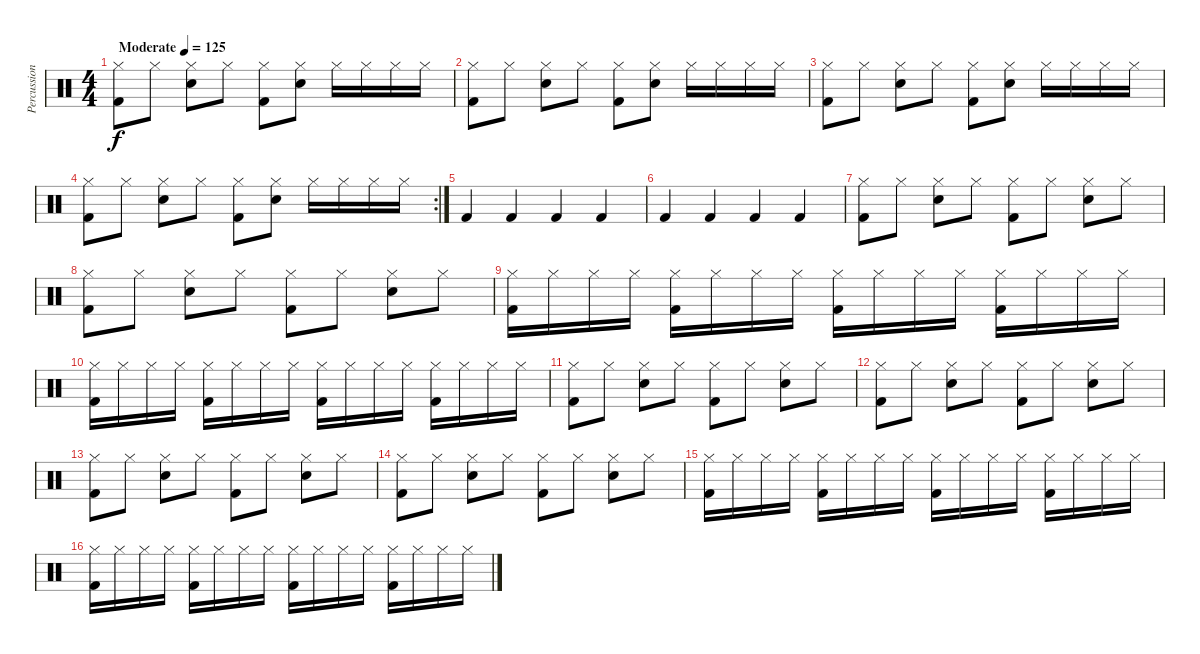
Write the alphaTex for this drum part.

\track ("Percussion" "Percussion") {instrument percussion}
\staff {score}
\articulation defaults
\ts (4 4)
\tempo (125 "Moderate")
\clef neutral
\ks c
("Kick (hit) 2" "Hi-Hat (closed)").8{dy f} "Hi-Hat (closed)".8 ("Snare (hit) 2" "Hi-Hat (closed)").8 "Hi-Hat (closed)".8 ("Kick (hit) 2" "Hi-Hat (closed)").8 ("Snare (hit) 2" "Hi-Hat (closed)").8 "Hi-Hat (closed)".16 "Hi-Hat (closed)".16 "Hi-Hat (closed)".16 "Hi-Hat (closed)".16 |
("Kick (hit) 2" "Hi-Hat (closed)").8 "Hi-Hat (closed)".8 ("Snare (hit) 2" "Hi-Hat (closed)").8 "Hi-Hat (closed)".8 ("Kick (hit) 2" "Hi-Hat (closed)").8 ("Snare (hit) 2" "Hi-Hat (closed)").8 "Hi-Hat (closed)".16 "Hi-Hat (closed)".16 "Hi-Hat (closed)".16 "Hi-Hat (closed)".16 |
("Kick (hit) 2" "Hi-Hat (closed)").8 "Hi-Hat (closed)".8 ("Snare (hit) 2" "Hi-Hat (closed)").8 "Hi-Hat (closed)".8 ("Kick (hit) 2" "Hi-Hat (closed)").8 ("Snare (hit) 2" "Hi-Hat (closed)").8 "Hi-Hat (closed)".16 "Hi-Hat (closed)".16 "Hi-Hat (closed)".16 "Hi-Hat (closed)".16 |
\rc 2
("Kick (hit) 2" "Hi-Hat (closed)").8 "Hi-Hat (closed)".8 ("Snare (hit) 2" "Hi-Hat (closed)").8 "Hi-Hat (closed)".8 ("Kick (hit) 2" "Hi-Hat (closed)").8 ("Snare (hit) 2" "Hi-Hat (closed)").8 "Hi-Hat (closed)".16 "Hi-Hat (closed)".16 "Hi-Hat (closed)".16 "Hi-Hat (closed)".16 |
"Kick (hit) 2".4 "Kick (hit) 2".4 "Kick (hit) 2".4 "Kick (hit) 2".4 |
"Kick (hit) 2".4 "Kick (hit) 2".4 "Kick (hit) 2".4 "Kick (hit) 2".4 |
("Kick (hit) 2" "Hi-Hat (closed)").8 "Hi-Hat (closed)".8 ("Snare (hit) 2" "Hi-Hat (closed)").8 "Hi-Hat (closed)".8 ("Kick (hit) 2" "Hi-Hat (closed)").8 "Hi-Hat (closed)".8 ("Snare (hit) 2" "Hi-Hat (closed)").8 "Hi-Hat (closed)".8 |
("Kick (hit) 2" "Hi-Hat (closed)").8 "Hi-Hat (closed)".8 ("Snare (hit) 2" "Hi-Hat (closed)").8 "Hi-Hat (closed)".8 ("Kick (hit) 2" "Hi-Hat (closed)").8 "Hi-Hat (closed)".8 ("Snare (hit) 2" "Hi-Hat (closed)").8 "Hi-Hat (closed)".8 |
("Kick (hit) 2" "Hi-Hat (closed)").16 "Hi-Hat (closed)".16 "Hi-Hat (closed)".16 "Hi-Hat (closed)".16 ("Kick (hit) 2" "Hi-Hat (closed)").16 "Hi-Hat (closed)".16 "Hi-Hat (closed)".16 "Hi-Hat (closed)".16 ("Kick (hit) 2" "Hi-Hat (closed)").16 "Hi-Hat (closed)".16 "Hi-Hat (closed)".16 "Hi-Hat (closed)".16 ("Kick (hit) 2" "Hi-Hat (closed)").16 "Hi-Hat (closed)".16 "Hi-Hat (closed)".16 "Hi-Hat (closed)".16 |
("Kick (hit) 2" "Hi-Hat (closed)").16 "Hi-Hat (closed)".16 "Hi-Hat (closed)".16 "Hi-Hat (closed)".16 ("Kick (hit) 2" "Hi-Hat (closed)").16 "Hi-Hat (closed)".16 "Hi-Hat (closed)".16 "Hi-Hat (closed)".16 ("Kick (hit) 2" "Hi-Hat (closed)").16 "Hi-Hat (closed)".16 "Hi-Hat (closed)".16 "Hi-Hat (closed)".16 ("Kick (hit) 2" "Hi-Hat (closed)").16 "Hi-Hat (closed)".16 "Hi-Hat (closed)".16 "Hi-Hat (closed)".16 |
("Kick (hit) 2" "Hi-Hat (closed)").8 "Hi-Hat (closed)".8 ("Snare (hit) 2" "Hi-Hat (closed)").8 "Hi-Hat (closed)".8 ("Kick (hit) 2" "Hi-Hat (closed)").8 "Hi-Hat (closed)".8 ("Snare (hit) 2" "Hi-Hat (closed)").8 "Hi-Hat (closed)".8 |
("Kick (hit) 2" "Hi-Hat (closed)").8 "Hi-Hat (closed)".8 ("Snare (hit) 2" "Hi-Hat (closed)").8 "Hi-Hat (closed)".8 ("Kick (hit) 2" "Hi-Hat (closed)").8 "Hi-Hat (closed)".8 ("Snare (hit) 2" "Hi-Hat (closed)").8 "Hi-Hat (closed)".8 |
("Kick (hit) 2" "Hi-Hat (closed)").8 "Hi-Hat (closed)".8 ("Snare (hit) 2" "Hi-Hat (closed)").8 "Hi-Hat (closed)".8 ("Kick (hit) 2" "Hi-Hat (closed)").8 "Hi-Hat (closed)".8 ("Snare (hit) 2" "Hi-Hat (closed)").8 "Hi-Hat (closed)".8 |
("Kick (hit) 2" "Hi-Hat (closed)").8 "Hi-Hat (closed)".8 ("Snare (hit) 2" "Hi-Hat (closed)").8 "Hi-Hat (closed)".8 ("Kick (hit) 2" "Hi-Hat (closed)").8 "Hi-Hat (closed)".8 ("Snare (hit) 2" "Hi-Hat (closed)").8 "Hi-Hat (closed)".8 |
("Kick (hit) 2" "Hi-Hat (closed)").16 "Hi-Hat (closed)".16 "Hi-Hat (closed)".16 "Hi-Hat (closed)".16 ("Kick (hit) 2" "Hi-Hat (closed)").16 "Hi-Hat (closed)".16 "Hi-Hat (closed)".16 "Hi-Hat (closed)".16 ("Kick (hit) 2" "Hi-Hat (closed)").16 "Hi-Hat (closed)".16 "Hi-Hat (closed)".16 "Hi-Hat (closed)".16 ("Kick (hit) 2" "Hi-Hat (closed)").16 "Hi-Hat (closed)".16 "Hi-Hat (closed)".16 "Hi-Hat (closed)".16 |
("Kick (hit) 2" "Hi-Hat (closed)").16 "Hi-Hat (closed)".16 "Hi-Hat (closed)".16 "Hi-Hat (closed)".16 ("Kick (hit) 2" "Hi-Hat (closed)").16 "Hi-Hat (closed)".16 "Hi-Hat (closed)".16 "Hi-Hat (closed)".16 ("Kick (hit) 2" "Hi-Hat (closed)").16 "Hi-Hat (closed)".16 "Hi-Hat (closed)".16 "Hi-Hat (closed)".16 ("Kick (hit) 2" "Hi-Hat (closed)").16 "Hi-Hat (closed)".16 "Hi-Hat (closed)".16 "Hi-Hat (closed)".16
